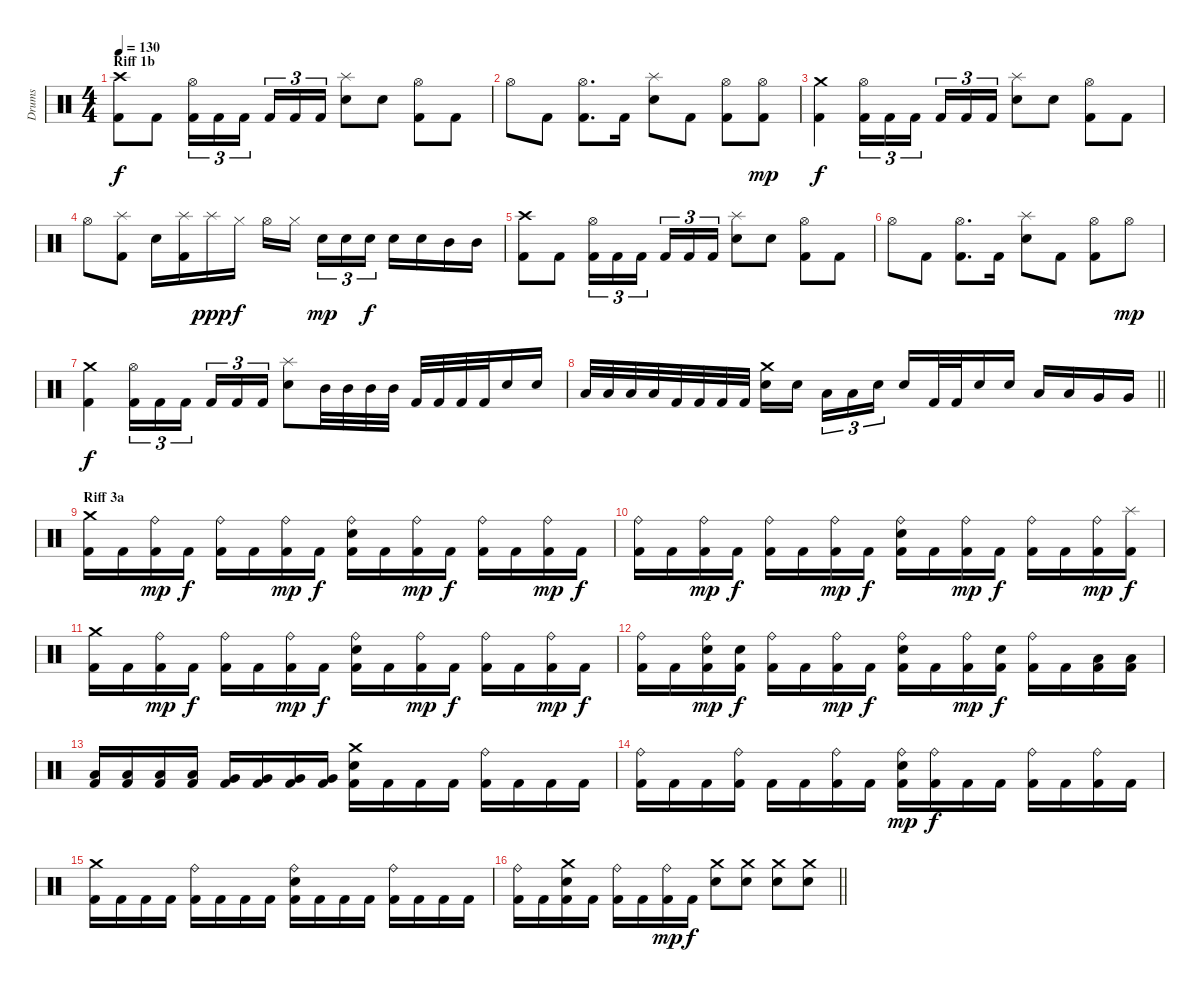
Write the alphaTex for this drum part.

\track ("Drums" "Drums") {instrument percussion}
\staff {score}
\articulation defaults
\ts (4 4)
\section ("" "Riff 1b")
\tempo 130
\clef neutral
\ks c
("Kick (hit) 2" "Crash high (hit)").8{dy f} "Kick (hit) 2".8 ("Hi-Hat (open)" "Kick (hit) 2").16{tu (3 2)} "Kick (hit) 2".16{tu (3 2)} "Kick (hit) 2".16{tu (3 2) beam splitsecondary} "Kick (hit) 2".16{tu (3 2)} "Kick (hit) 2".16{tu (3 2)} "Kick (hit) 2".16{tu (3 2)} ("Electric Snare (hit)" "Splash (hit)").8 "Electric Snare (hit)".8 ("Kick (hit) 2" "Hi-Hat (open)").8 "Kick (hit) 2".8 |
"Hi-Hat (open)".8 "Kick (hit) 2".8 ("Kick (hit) 2" "Hi-Hat (open)").8{d} "Kick (hit) 2".16 ("Electric Snare (hit)" "Splash (hit)").8 "Kick (hit) 2".8 ("Kick (hit) 2" "Hi-Hat (open)").8 ("Kick (hit) 2" "Hi-Hat (open)").8{dy mp} |
("Crash medium (hit)" "Kick (hit) 2").4{dy f} ("Hi-Hat (open)" "Kick (hit) 2").16{tu (3 2)} "Kick (hit) 2".16{tu (3 2)} "Kick (hit) 2".16{tu (3 2) beam splitsecondary} "Kick (hit) 2".16{tu (3 2)} "Kick (hit) 2".16{tu (3 2)} "Kick (hit) 2".16{tu (3 2)} ("Electric Snare (hit)" "Splash (hit)").8 "Electric Snare (hit)".8 ("Kick (hit) 2" "Hi-Hat (open)").8 "Kick (hit) 2".8 |
"Hi-Hat (open)".8 ("Kick (hit) 2" "Splash (hit)").8 "Electric Snare (hit)".16 ("Kick (hit) 2" "Splash (hit)").16 "Splash (hit)".16{dy ppp} "Hi-Hat (closed)".16{dy f} "Hi-Hat (open)".16 "Hi-Hat (closed)".16{beam splitsecondary} "Electric Snare (hit)".16{tu (3 2) dy mp} "Electric Snare (hit)".16{tu (3 2)} "Electric Snare (hit)".16{tu (3 2) dy f} "Electric Snare (hit)".16 "Electric Snare (hit)".16 "Mid Tom (hit)".16 "Mid Tom (hit)".16 |
("Kick (hit) 2" "Crash high (hit)").8 "Kick (hit) 2".8 ("Hi-Hat (open)" "Kick (hit) 2").16{tu (3 2)} "Kick (hit) 2".16{tu (3 2)} "Kick (hit) 2".16{tu (3 2) beam splitsecondary} "Kick (hit) 2".16{tu (3 2)} "Kick (hit) 2".16{tu (3 2)} "Kick (hit) 2".16{tu (3 2)} ("Electric Snare (hit)" "Splash (hit)").8 "Electric Snare (hit)".8 ("Kick (hit) 2" "Hi-Hat (open)").8 "Kick (hit) 2".8 |
"Hi-Hat (open)".8 "Kick (hit) 2".8 ("Kick (hit) 2" "Hi-Hat (open)").8{d} "Kick (hit) 2".16 ("Electric Snare (hit)" "Splash (hit)").8 "Kick (hit) 2".8 ("Kick (hit) 2" "Hi-Hat (open)").8 "Hi-Hat (open)".8{dy mp} |
("Crash medium (hit)" "Kick (hit) 2").4{dy f} ("Hi-Hat (open)" "Kick (hit) 2").16{tu (3 2)} "Kick (hit) 2".16{tu (3 2)} "Kick (hit) 2".16{tu (3 2) beam splitsecondary} "Kick (hit) 2".16{tu (3 2)} "Kick (hit) 2".16{tu (3 2)} "Kick (hit) 2".16{tu (3 2)} ("Electric Snare (hit)" "Splash (hit)").8 "Mid Tom (hit)".32 "Mid Tom (hit)".32 "Mid Tom (hit)".32 "Mid Tom (hit)".32 "Kick (hit) 2".32 "Kick (hit) 2".32 "Kick (hit) 2".32 "Kick (hit) 2".32 "Electric Snare (hit)".16 "Electric Snare (hit)".16 |
\barLineRight lightlight "Low Tom (hit)".32 "Low Tom (hit)".32 "Low Tom (hit)".32 "Low Tom (hit)".32 "Kick (hit) 2".32 "Kick (hit) 2".32 "Kick (hit) 2".32 "Kick (hit) 2".32
("Electric Snare (hit)" "Crash medium (hit)").16 "Electric Snare (hit)".16{beam splitsecondary} "Low Tom (hit)".16{tu (3 2)} "Low Tom (hit)".16{tu (3 2)} "Electric Snare (hit)".16{tu (3 2)} "Electric Snare (hit)".16 "Kick (hit) 2".32 "Kick (hit) 2".32 "Electric Snare (hit)".16 "Electric Snare (hit)".16 "Low Tom (hit)".16 "Low Tom (hit)".16 "Very Low Tom (hit)".16 "Very Low Tom (hit)".16 |
\section ("" "Riff 3a")
("Crash medium (hit)" "Kick (hit) 2").16 "Kick (hit) 2".16 ("Ride (bell)" "Kick (hit) 2").16{dy mp} "Kick (hit) 2".16{dy f} ("Ride (bell)" "Kick (hit) 2").16 "Kick (hit) 2".16 ("Ride (bell)" "Kick (hit) 2").16{dy mp} "Kick (hit) 2".16{dy f} ("Electric Snare (hit)" "Kick (hit) 2" "Ride (bell)").16 "Kick (hit) 2".16 ("Ride (bell)" "Kick (hit) 2").16{dy mp} "Kick (hit) 2".16{dy f} ("Ride (bell)" "Kick (hit) 2").16 "Kick (hit) 2".16 ("Ride (bell)" "Kick (hit) 2").16{dy mp} "Kick (hit) 2".16{dy f} |
("Ride (bell)" "Kick (hit) 2").16 "Kick (hit) 2".16 ("Ride (bell)" "Kick (hit) 2").16{dy mp} "Kick (hit) 2".16{dy f} ("Ride (bell)" "Kick (hit) 2").16 "Kick (hit) 2".16 ("Ride (bell)" "Kick (hit) 2").16{dy mp} "Kick (hit) 2".16{dy f} ("Electric Snare (hit)" "Kick (hit) 2" "Ride (bell)").16 "Kick (hit) 2".16 ("Ride (bell)" "Kick (hit) 2").16{dy mp} "Kick (hit) 2".16{dy f} ("Ride (bell)" "Kick (hit) 2").16 "Kick (hit) 2".16 ("Ride (bell)" "Kick (hit) 2").16{dy mp} ("Splash (hit)" "Kick (hit) 2").16{dy f} |
("Crash medium (hit)" "Kick (hit) 2").16 "Kick (hit) 2".16 ("Ride (bell)" "Kick (hit) 2").16{dy mp} "Kick (hit) 2".16{dy f} ("Ride (bell)" "Kick (hit) 2").16 "Kick (hit) 2".16 ("Ride (bell)" "Kick (hit) 2").16{dy mp} "Kick (hit) 2".16{dy f} ("Electric Snare (hit)" "Kick (hit) 2" "Ride (bell)").16 "Kick (hit) 2".16 ("Ride (bell)" "Kick (hit) 2").16{dy mp} "Kick (hit) 2".16{dy f} ("Ride (bell)" "Kick (hit) 2").16 "Kick (hit) 2".16 ("Ride (bell)" "Kick (hit) 2").16{dy mp} "Kick (hit) 2".16{dy f} |
("Ride (bell)" "Kick (hit) 2").16 "Kick (hit) 2".16 ("Ride (bell)" "Kick (hit) 2" "Electric Snare (hit)").16{dy mp} ("Electric Snare (hit)" "Kick (hit) 2").16{dy f} ("Ride (bell)" "Kick (hit) 2").16 "Kick (hit) 2".16 ("Ride (bell)" "Kick (hit) 2").16{dy mp} "Kick (hit) 2".16{dy f} ("Electric Snare (hit)" "Kick (hit) 2" "Ride (bell)").16 "Kick (hit) 2".16 ("Ride (bell)" "Kick (hit) 2").16{dy mp} ("Electric Snare (hit)" "Kick (hit) 2").16{dy f} ("Ride (bell)" "Kick (hit) 2").16 "Kick (hit) 2".16 ("Low Tom (hit)" "Kick (hit) 2").16 ("Low Tom (hit)" "Kick (hit) 2").16 |
("Kick (hit) 2" "Low Tom (hit)").16 ("Kick (hit) 2" "Low Tom (hit)").16 ("Kick (hit) 2" "Low Tom (hit)").16 ("Kick (hit) 2" "Low Tom (hit)").16 ("Kick (hit) 2" "Very Low Tom (hit)").16 ("Kick (hit) 2" "Very Low Tom (hit)").16 ("Kick (hit) 2" "Very Low Tom (hit)").16 ("Kick (hit) 2" "Very Low Tom (hit)").16 ("Kick (hit) 2" "Electric Snare (hit)" "Crash medium (hit)").16 "Kick (hit) 2".16 "Kick (hit) 2".16 "Kick (hit) 2".16 ("Kick (hit) 2" "Ride (bell)").16 "Kick (hit) 2".16 "Kick (hit) 2".16 "Kick (hit) 2".16 |
("Ride (bell)" "Kick (hit) 2").16 "Kick (hit) 2".16 "Kick (hit) 2".16 ("Ride (bell)" "Kick (hit) 2").16 "Kick (hit) 2".16 "Kick (hit) 2".16 ("Ride (bell)" "Kick (hit) 2").16 "Kick (hit) 2".16 ("Electric Snare (hit)" "Ride (bell)" "Kick (hit) 2").16{dy mp} ("Ride (bell)" "Kick (hit) 2").16{dy f} "Kick (hit) 2".16 "Kick (hit) 2".16 ("Ride (bell)" "Kick (hit) 2").16 "Kick (hit) 2".16 ("Ride (bell)" "Kick (hit) 2").16 "Kick (hit) 2".16 |
("Crash medium (hit)" "Kick (hit) 2").16 "Kick (hit) 2".16 "Kick (hit) 2".16 "Kick (hit) 2".16 ("Ride (bell)" "Kick (hit) 2").16 "Kick (hit) 2".16 "Kick (hit) 2".16 "Kick (hit) 2".16 ("Electric Snare (hit)" "Kick (hit) 2" "Ride (bell)").16 "Kick (hit) 2".16 "Kick (hit) 2".16 "Kick (hit) 2".16 ("Ride (bell)" "Kick (hit) 2").16 "Kick (hit) 2".16 "Kick (hit) 2".16 "Kick (hit) 2".16 |
\barLineRight lightlight
("Ride (bell)" "Kick (hit) 2").16 "Kick (hit) 2".16 ("Electric Snare (hit)" "Kick (hit) 2" "Crash medium (hit)").16 "Kick (hit) 2".16 ("Ride (bell)" "Kick (hit) 2").16 "Kick (hit) 2".16 ("Ride (bell)" "Kick (hit) 2").16{dy mp} "Kick (hit) 2".16{dy f} ("Electric Snare (hit)" "Crash medium (hit)").8 ("Electric Snare (hit)" "Crash medium (hit)").8 ("Electric Snare (hit)" "Crash medium (hit)").8 ("Electric Snare (hit)" "Crash medium (hit)").8
